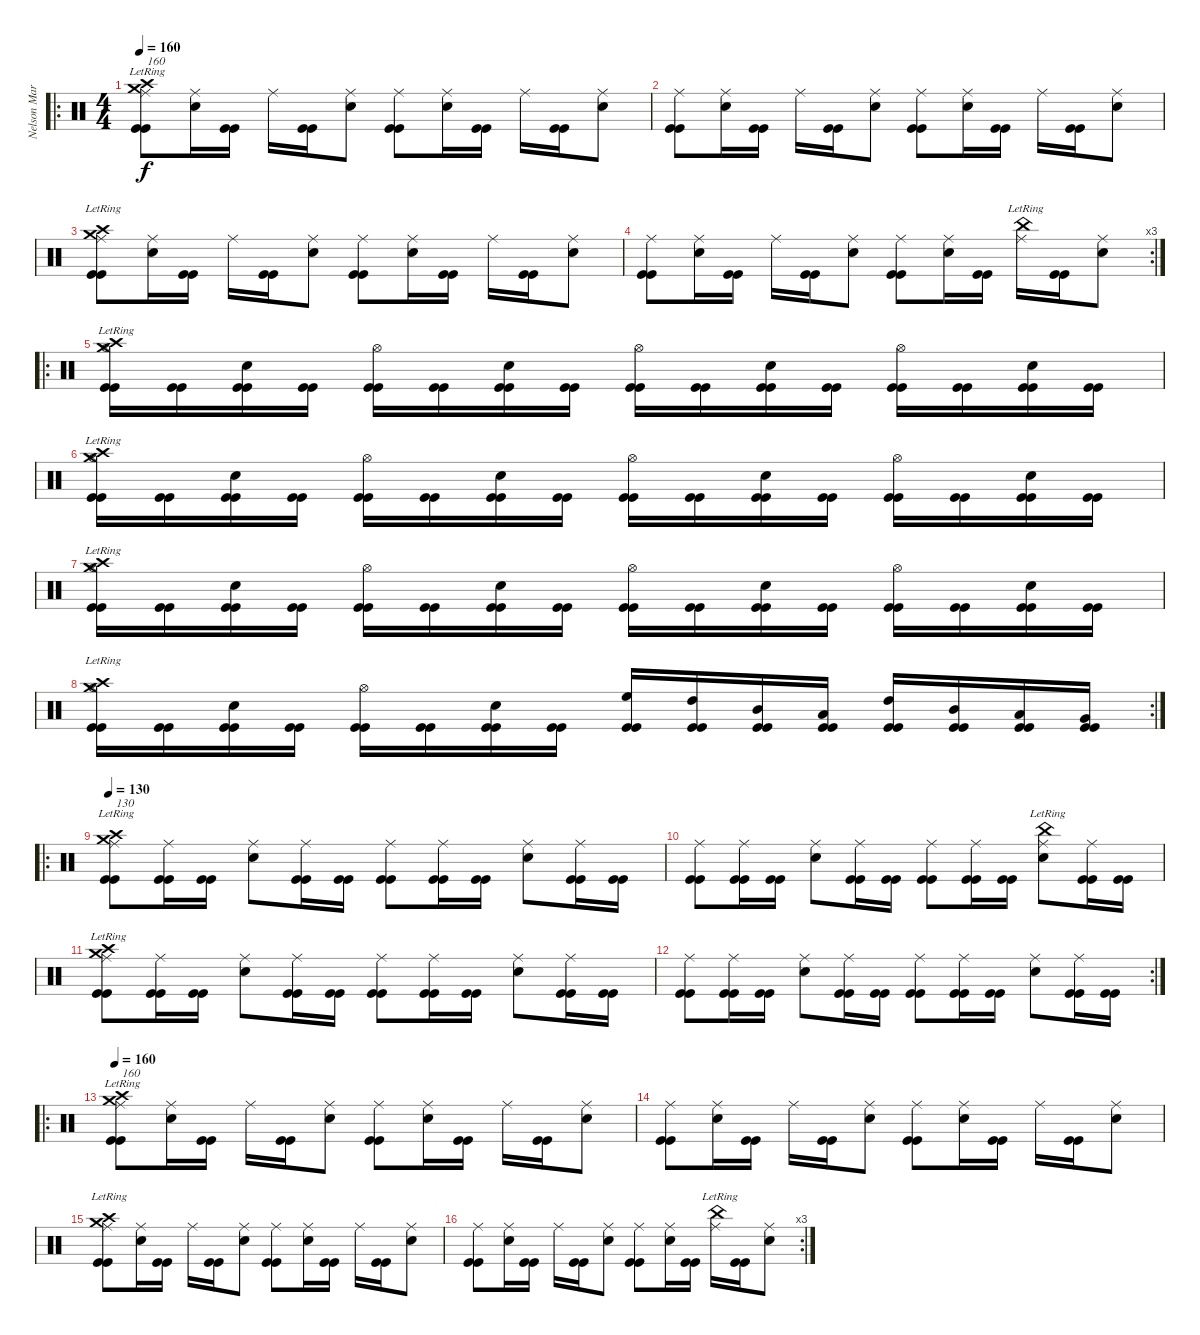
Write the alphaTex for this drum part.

\track ("Nelson Maria" "Nelson Mar") {instrument percussion}
\staff {score}
\articulation defaults
\ro
\ts (4 4)
\tempo 160
\clef neutral
\ks c
("Crash high (hit)"{lr} "Crash medium (hit)"{lr} "Ride (middle)" "Kick (hit)" "Kick (hit)").8{txt "160" dy f} ("Snare (hit) 2" "Ride (middle)").16 ("Kick (hit)" "Kick (hit)").16 "Ride (middle)".16 ("Kick (hit)" "Kick (hit)").16 ("Snare (hit) 2" "Ride (middle)").8 ("Ride (middle)" "Kick (hit)" "Kick (hit)").8 ("Snare (hit) 2" "Ride (middle)").16 ("Kick (hit)" "Kick (hit)").16 "Ride (middle)".16 ("Kick (hit)" "Kick (hit)").16 ("Snare (hit) 2" "Ride (middle)").8 |
("Ride (middle)" "Kick (hit)" "Kick (hit)").8 ("Snare (hit) 2" "Ride (middle)").16 ("Kick (hit)" "Kick (hit)").16 "Ride (middle)".16 ("Kick (hit)" "Kick (hit)").16 ("Snare (hit) 2" "Ride (middle)").8 ("Ride (middle)" "Kick (hit)" "Kick (hit)").8 ("Snare (hit) 2" "Ride (middle)").16 ("Kick (hit)" "Kick (hit)").16 "Ride (middle)".16 ("Kick (hit)" "Kick (hit)").16 ("Snare (hit) 2" "Ride (middle)").8 |
("Crash high (hit)"{lr} "Crash medium (hit)"{lr} "Ride (middle)" "Kick (hit)" "Kick (hit)").8 ("Snare (hit) 2" "Ride (middle)").16 ("Kick (hit)" "Kick (hit)").16 "Ride (middle)".16 ("Kick (hit)" "Kick (hit)").16 ("Snare (hit) 2" "Ride (middle)").8 ("Ride (middle)" "Kick (hit)" "Kick (hit)").8 ("Snare (hit) 2" "Ride (middle)").16 ("Kick (hit)" "Kick (hit)").16 "Ride (middle)".16 ("Kick (hit)" "Kick (hit)").16 ("Snare (hit) 2" "Ride (middle)").8 |
\rc 3
("Ride (middle)" "Kick (hit)" "Kick (hit)").8 ("Snare (hit) 2" "Ride (middle)").16 ("Kick (hit)" "Kick (hit)").16 "Ride (middle)".16 ("Kick (hit)" "Kick (hit)").16 ("Snare (hit) 2" "Ride (middle)").8 ("Ride (middle)" "Kick (hit)" "Kick (hit)").8 ("Snare (hit) 2" "Ride (middle)").16 ("Kick (hit)" "Kick (hit)").16 ("China (hit)"{lr} "Ride (middle)").16 ("Kick (hit)" "Kick (hit)").16 ("Snare (hit) 2" "Ride (middle)").8 |
\ro
("Crash high (hit)"{lr} "Crash medium (hit)"{lr} "Hi-Hat (open)" "Kick (hit)" "Kick (hit)").16 ("Kick (hit)" "Kick (hit)").16 ("Snare (hit) 2" "Kick (hit)" "Kick (hit)").16 ("Kick (hit)" "Kick (hit)").16 ("Hi-Hat (open)" "Kick (hit)" "Kick (hit)").16 ("Kick (hit)" "Kick (hit)").16 ("Snare (hit) 2" "Kick (hit)" "Kick (hit)").16 ("Kick (hit)" "Kick (hit)").16 ("Hi-Hat (open)" "Kick (hit)" "Kick (hit)").16 ("Kick (hit)" "Kick (hit)").16 ("Snare (hit) 2" "Kick (hit)" "Kick (hit)").16 ("Kick (hit)" "Kick (hit)").16 ("Hi-Hat (open)" "Kick (hit)" "Kick (hit)").16 ("Kick (hit)" "Kick (hit)").16 ("Snare (hit) 2" "Kick (hit)" "Kick (hit)").16 ("Kick (hit)" "Kick (hit)").16 |
("Crash high (hit)"{lr} "Crash medium (hit)"{lr} "Hi-Hat (open)" "Kick (hit)" "Kick (hit)").16 ("Kick (hit)" "Kick (hit)").16 ("Snare (hit) 2" "Kick (hit)" "Kick (hit)").16 ("Kick (hit)" "Kick (hit)").16 ("Hi-Hat (open)" "Kick (hit)" "Kick (hit)").16 ("Kick (hit)" "Kick (hit)").16 ("Snare (hit) 2" "Kick (hit)" "Kick (hit)").16 ("Kick (hit)" "Kick (hit)").16 ("Hi-Hat (open)" "Kick (hit)" "Kick (hit)").16 ("Kick (hit)" "Kick (hit)").16 ("Snare (hit) 2" "Kick (hit)" "Kick (hit)").16 ("Kick (hit)" "Kick (hit)").16 ("Hi-Hat (open)" "Kick (hit)" "Kick (hit)").16 ("Kick (hit)" "Kick (hit)").16 ("Snare (hit) 2" "Kick (hit)" "Kick (hit)").16 ("Kick (hit)" "Kick (hit)").16 |
("Crash high (hit)"{lr} "Crash medium (hit)"{lr} "Hi-Hat (open)" "Kick (hit)" "Kick (hit)").16 ("Kick (hit)" "Kick (hit)").16 ("Snare (hit) 2" "Kick (hit)" "Kick (hit)").16 ("Kick (hit)" "Kick (hit)").16 ("Hi-Hat (open)" "Kick (hit)" "Kick (hit)").16 ("Kick (hit)" "Kick (hit)").16 ("Snare (hit) 2" "Kick (hit)" "Kick (hit)").16 ("Kick (hit)" "Kick (hit)").16 ("Hi-Hat (open)" "Kick (hit)" "Kick (hit)").16 ("Kick (hit)" "Kick (hit)").16 ("Snare (hit) 2" "Kick (hit)" "Kick (hit)").16 ("Kick (hit)" "Kick (hit)").16 ("Hi-Hat (open)" "Kick (hit)" "Kick (hit)").16 ("Kick (hit)" "Kick (hit)").16 ("Snare (hit) 2" "Kick (hit)" "Kick (hit)").16 ("Kick (hit)" "Kick (hit)").16 |
\rc 2
("Crash high (hit)"{lr} "Crash medium (hit)"{lr} "Hi-Hat (open)" "Kick (hit)" "Kick (hit)").16 ("Kick (hit)" "Kick (hit)").16 ("Snare (hit) 2" "Kick (hit)" "Kick (hit)").16 ("Kick (hit)" "Kick (hit)").16 ("Hi-Hat (open)" "Kick (hit)" "Kick (hit)").16 ("Kick (hit)" "Kick (hit)").16 ("Snare (hit) 2" "Kick (hit)" "Kick (hit)").16 ("Kick (hit)" "Kick (hit)").16 ("High Floor Tom (hit)" "Kick (hit)" "Kick (hit)").16 ("High Tom (hit)" "Kick (hit)" "Kick (hit)").16 ("Mid Tom (hit)" "Kick (hit)" "Kick (hit)").16 ("Low Tom (hit)" "Kick (hit)" "Kick (hit)").16 ("High Tom (hit)" "Kick (hit)" "Kick (hit)").16 ("Mid Tom (hit)" "Kick (hit)" "Kick (hit)").16 ("Low Tom (hit)" "Kick (hit)" "Kick (hit)").16 ("Very Low Tom (hit)" "Kick (hit)" "Kick (hit)").16 |
\ro
\tempo 130
("Crash high (hit)"{lr} "Crash medium (hit)"{lr} "Ride (middle)" "Kick (hit)" "Kick (hit)").8{txt "130"} ("Ride (middle)" "Kick (hit)" "Kick (hit)").16 ("Kick (hit)" "Kick (hit)").16 ("Snare (hit) 2" "Ride (middle)").8 ("Ride (middle)" "Kick (hit)" "Kick (hit)").16 ("Kick (hit)" "Kick (hit)").16 ("Ride (middle)" "Kick (hit)" "Kick (hit)").8 ("Ride (middle)" "Kick (hit)" "Kick (hit)").16 ("Kick (hit)" "Kick (hit)").16 ("Snare (hit) 2" "Ride (middle)").8 ("Ride (middle)" "Kick (hit)" "Kick (hit)").16 ("Kick (hit)" "Kick (hit)").16 |
("Ride (middle)" "Kick (hit)" "Kick (hit)").8 ("Ride (middle)" "Kick (hit)" "Kick (hit)").16 ("Kick (hit)" "Kick (hit)").16 ("Snare (hit) 2" "Ride (middle)").8 ("Ride (middle)" "Kick (hit)" "Kick (hit)").16 ("Kick (hit)" "Kick (hit)").16 ("Ride (middle)" "Kick (hit)" "Kick (hit)").8 ("Ride (middle)" "Kick (hit)" "Kick (hit)").16 ("Kick (hit)" "Kick (hit)").16 ("China (hit)"{lr} "Snare (hit) 2" "Ride (middle)").8 ("Ride (middle)" "Kick (hit)" "Kick (hit)").16 ("Kick (hit)" "Kick (hit)").16 |
("Crash high (hit)"{lr} "Crash medium (hit)"{lr} "Ride (middle)" "Kick (hit)" "Kick (hit)").8 ("Ride (middle)" "Kick (hit)" "Kick (hit)").16 ("Kick (hit)" "Kick (hit)").16 ("Snare (hit) 2" "Ride (middle)").8 ("Ride (middle)" "Kick (hit)" "Kick (hit)").16 ("Kick (hit)" "Kick (hit)").16 ("Ride (middle)" "Kick (hit)" "Kick (hit)").8 ("Ride (middle)" "Kick (hit)" "Kick (hit)").16 ("Kick (hit)" "Kick (hit)").16 ("Snare (hit) 2" "Ride (middle)").8 ("Ride (middle)" "Kick (hit)" "Kick (hit)").16 ("Kick (hit)" "Kick (hit)").16 |
\rc 2
("Ride (middle)" "Kick (hit)" "Kick (hit)").8 ("Ride (middle)" "Kick (hit)" "Kick (hit)").16 ("Kick (hit)" "Kick (hit)").16 ("Snare (hit) 2" "Ride (middle)").8 ("Ride (middle)" "Kick (hit)" "Kick (hit)").16 ("Kick (hit)" "Kick (hit)").16 ("Ride (middle)" "Kick (hit)" "Kick (hit)").8 ("Ride (middle)" "Kick (hit)" "Kick (hit)").16 ("Kick (hit)" "Kick (hit)").16 ("Snare (hit) 2" "Ride (middle)").8 ("Ride (middle)" "Kick (hit)" "Kick (hit)").16 ("Kick (hit)" "Kick (hit)").16 |
\ro
\tempo 160
("Crash high (hit)"{lr} "Crash medium (hit)"{lr} "Ride (middle)" "Kick (hit)" "Kick (hit)").8{txt "160"} ("Snare (hit) 2" "Ride (middle)").16 ("Kick (hit)" "Kick (hit)").16 "Ride (middle)".16 ("Kick (hit)" "Kick (hit)").16 ("Snare (hit) 2" "Ride (middle)").8 ("Ride (middle)" "Kick (hit)" "Kick (hit)").8 ("Snare (hit) 2" "Ride (middle)").16 ("Kick (hit)" "Kick (hit)").16 "Ride (middle)".16 ("Kick (hit)" "Kick (hit)").16 ("Snare (hit) 2" "Ride (middle)").8 |
("Ride (middle)" "Kick (hit)" "Kick (hit)").8 ("Snare (hit) 2" "Ride (middle)").16 ("Kick (hit)" "Kick (hit)").16 "Ride (middle)".16 ("Kick (hit)" "Kick (hit)").16 ("Snare (hit) 2" "Ride (middle)").8 ("Ride (middle)" "Kick (hit)" "Kick (hit)").8 ("Snare (hit) 2" "Ride (middle)").16 ("Kick (hit)" "Kick (hit)").16 "Ride (middle)".16 ("Kick (hit)" "Kick (hit)").16 ("Snare (hit) 2" "Ride (middle)").8 |
("Crash high (hit)"{lr} "Crash medium (hit)"{lr} "Ride (middle)" "Kick (hit)" "Kick (hit)").8 ("Snare (hit) 2" "Ride (middle)").16 ("Kick (hit)" "Kick (hit)").16 "Ride (middle)".16 ("Kick (hit)" "Kick (hit)").16 ("Snare (hit) 2" "Ride (middle)").8 ("Ride (middle)" "Kick (hit)" "Kick (hit)").8 ("Snare (hit) 2" "Ride (middle)").16 ("Kick (hit)" "Kick (hit)").16 "Ride (middle)".16 ("Kick (hit)" "Kick (hit)").16 ("Snare (hit) 2" "Ride (middle)").8 |
\rc 3
("Ride (middle)" "Kick (hit)" "Kick (hit)").8 ("Snare (hit) 2" "Ride (middle)").16 ("Kick (hit)" "Kick (hit)").16 "Ride (middle)".16 ("Kick (hit)" "Kick (hit)").16 ("Snare (hit) 2" "Ride (middle)").8 ("Ride (middle)" "Kick (hit)" "Kick (hit)").8 ("Snare (hit) 2" "Ride (middle)").16 ("Kick (hit)" "Kick (hit)").16 ("China (hit)"{lr} "Ride (middle)").16 ("Kick (hit)" "Kick (hit)").16 ("Snare (hit) 2" "Ride (middle)").8
